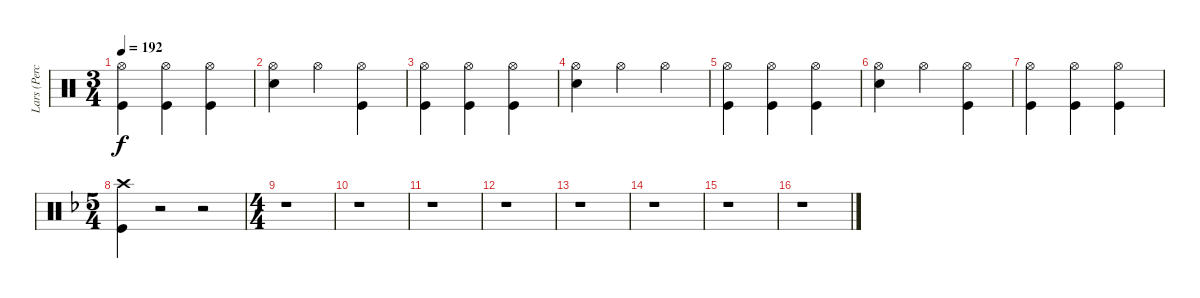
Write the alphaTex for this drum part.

\track ("Lars (Percussion)" "Lars (Perc") {instrument percussion}
\staff {score}
\articulation defaults
\ts (3 4)
\tempo 192
\clef neutral
\ks c
("Hi-Hat (open)" "Kick (hit)").4{dy f} ("Hi-Hat (open)" "Kick (hit)").4 ("Hi-Hat (open)" "Kick (hit)").4 |
("Hi-Hat (open)" "Snare (hit) 2").4 "Hi-Hat (open)".4 ("Hi-Hat (open)" "Kick (hit)").4 |
("Hi-Hat (open)" "Kick (hit)").4 ("Hi-Hat (open)" "Kick (hit)").4 ("Hi-Hat (open)" "Kick (hit)").4 |
("Hi-Hat (open)" "Snare (hit) 2").4 "Hi-Hat (open)".4 "Hi-Hat (open)".4 |
("Hi-Hat (open)" "Kick (hit)").4 ("Hi-Hat (open)" "Kick (hit)").4 ("Hi-Hat (open)" "Kick (hit)").4 |
("Hi-Hat (open)" "Snare (hit) 2").4 "Hi-Hat (open)".4 ("Hi-Hat (open)" "Kick (hit)").4 |
("Hi-Hat (open)" "Kick (hit)").4 ("Hi-Hat (open)" "Kick (hit)").4 ("Hi-Hat (open)" "Kick (hit)").4 |
\ts (5 4)
\ks f
("Crash high (hit)" "Kick (hit)").4 r.2 r.2 |
\ts (4 4)
r.1 |
r.1 |
r.1 |
r.1 |
r.1 |
r.1 |
r.1 |
r.1
